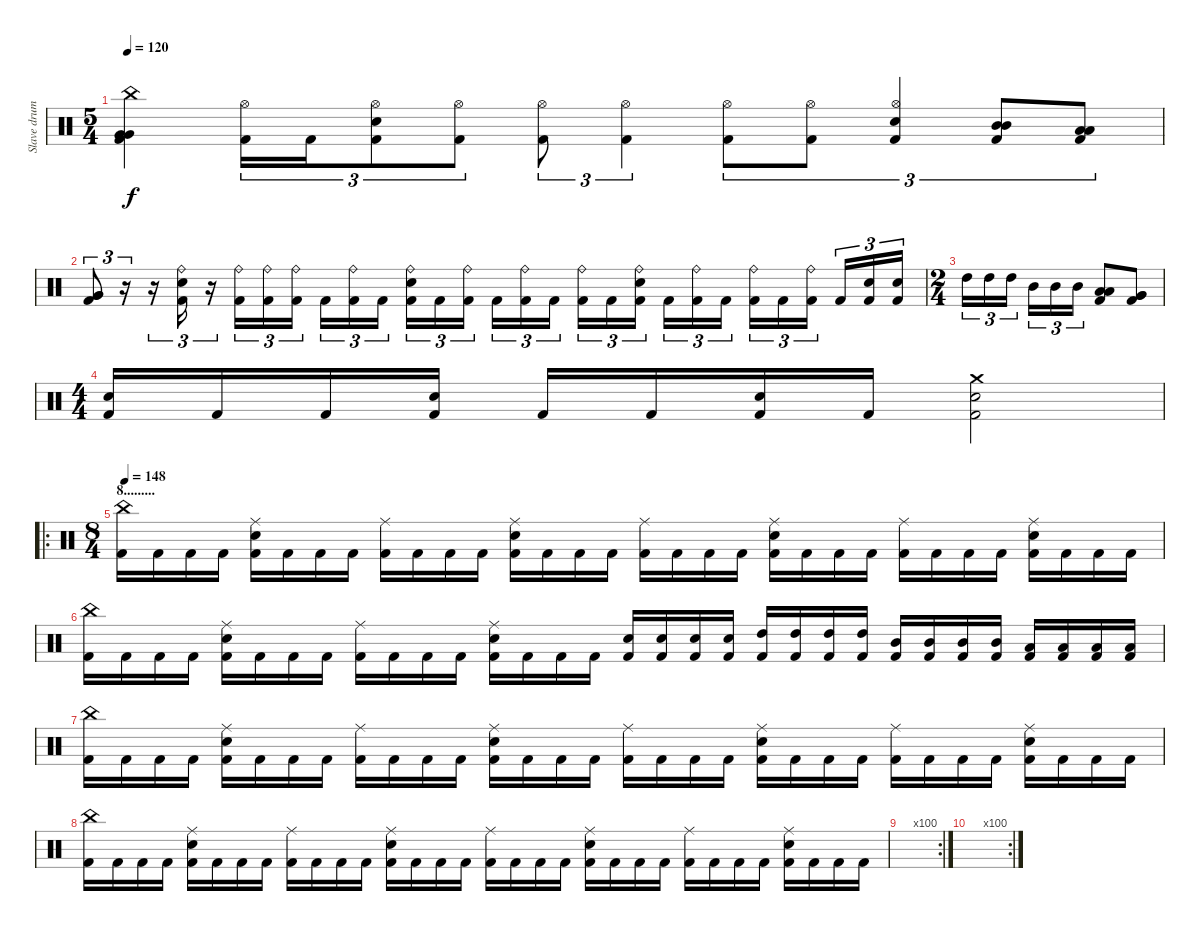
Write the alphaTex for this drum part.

\track ("Slave drum" "Slave drum") {instrument percussion}
\staff {score}
\articulation defaults
\ts (5 4)
\tempo 120
\clef neutral
\ks c
("China (hit)" "Very Low Tom (hit)" "Very Low Tom (hit)" "Kick (hit) 2").4{dy f} ("Hi-Hat (open)" "Kick (hit) 2").16{tu (3 2)} "Kick (hit) 2".16{tu (3 2)} ("Hi-Hat (open)" "Electric Snare (hit)" "Kick (hit) 2").8{tu (3 2)} ("Hi-Hat (open)" "Kick (hit) 2").8{tu (3 2)} ("Hi-Hat (open)" "Kick (hit) 2").8{tu (3 2)} ("Hi-Hat (open)" "Kick (hit) 2").4{tu (3 2)} ("Hi-Hat (open)" "Kick (hit) 2").8{tu (3 2)} ("Hi-Hat (open)" "Kick (hit) 2").8{tu (3 2)} ("Hi-Hat (open)" "Electric Snare (hit)" "Kick (hit) 2").4{tu (3 2)} ("Mid Tom (hit)" "Mid Tom (hit)" "Kick (hit) 2").8{tu (3 2)} ("Low Tom (hit)" "Low Tom (hit)" "Kick (hit) 2").8{tu (3 2)} |
("Very Low Tom (hit)" "Very Low Tom (hit)" "Kick (hit) 2").8{tu (3 2)} r.16{tu (3 2)} r.16{tu (3 2)} ("Ride (bell)" "Electric Snare (hit)" "Kick (hit) 2").16{tu (3 2)} r.16{tu (3 2)} ("Ride (bell)" "Kick (hit) 2").16{tu (3 2)} ("Ride (bell)" "Kick (hit) 2").16{tu (3 2)} ("Ride (bell)" "Kick (hit) 2").16{tu (3 2)} "Kick (hit) 2".16{tu (3 2)} ("Ride (bell)" "Kick (hit) 2").16{tu (3 2)} "Kick (hit) 2".16{tu (3 2)} ("Ride (bell)" "Electric Snare (hit)" "Kick (hit) 2").16{tu (3 2)} "Kick (hit) 2".16{tu (3 2)} ("Ride (bell)" "Kick (hit) 2").16{tu (3 2)} "Kick (hit) 2".16{tu (3 2)} ("Ride (bell)" "Kick (hit) 2").16{tu (3 2)} "Kick (hit) 2".16{tu (3 2)} ("Ride (bell)" "Kick (hit) 2").16{tu (3 2)} "Kick (hit) 2".16{tu (3 2)} ("Ride (bell)" "Electric Snare (hit)" "Kick (hit) 2").16{tu (3 2)} "Kick (hit) 2".16{tu (3 2)} ("Ride (bell)" "Kick (hit) 2").16{tu (3 2)} "Kick (hit) 2".16{tu (3 2)} ("Ride (bell)" "Kick (hit) 2").16{tu (3 2)} "Kick (hit) 2".16{tu (3 2)} ("Ride (bell)" "Kick (hit) 2").16{tu (3 2)} "Kick (hit) 2".16{tu (3 2)} ("Electric Snare (hit)" "Kick (hit) 2").16{tu (3 2)} ("Electric Snare (hit)" "Kick (hit) 2").16{tu (3 2)} |
\ts (2 4)
"High Tom (hit)".16{tu (3 2)} "High Tom (hit)".16{tu (3 2)} "High Tom (hit)".16{tu (3 2)} "Mid Tom (hit)".16{tu (3 2)} "Mid Tom (hit)".16{tu (3 2)} "Mid Tom (hit)".16{tu (3 2)} ("Low Tom (hit)" "Low Tom (hit)" "Kick (hit) 2").8 ("Very Low Tom (hit)" "Very Low Tom (hit)" "Kick (hit) 2").8 |
\ts (4 4)
("Electric Snare (hit)" "Kick (hit) 2").16 "Kick (hit) 2".16 "Kick (hit) 2".16 ("Electric Snare (hit)" "Kick (hit) 2").16 "Kick (hit) 2".16 "Kick (hit) 2".16 ("Electric Snare (hit)" "Kick (hit) 2").16 "Kick (hit) 2".16 ("Crash medium (hit)" "Electric Snare (hit)" "Kick (hit) 2").2 |
\ro
\ts (8 4)
\section ("" "8.........")
\tempo 148
("China (hit)" "Kick (hit) 2").16{volume 13} "Kick (hit) 2".16 "Kick (hit) 2".16 "Kick (hit) 2".16 ("Ride (middle)" "Electric Snare (hit)" "Kick (hit) 2").16 "Kick (hit) 2".16 "Kick (hit) 2".16 "Kick (hit) 2".16 ("Ride (middle)" "Kick (hit) 2").16 "Kick (hit) 2".16 "Kick (hit) 2".16 "Kick (hit) 2".16 ("Ride (middle)" "Electric Snare (hit)" "Kick (hit) 2").16 "Kick (hit) 2".16 "Kick (hit) 2".16 "Kick (hit) 2".16 ("Ride (middle)" "Kick (hit) 2").16 "Kick (hit) 2".16 "Kick (hit) 2".16 "Kick (hit) 2".16 ("Ride (middle)" "Electric Snare (hit)" "Kick (hit) 2").16 "Kick (hit) 2".16 "Kick (hit) 2".16 "Kick (hit) 2".16 ("Ride (middle)" "Kick (hit) 2").16{volume 0} "Kick (hit) 2".16 "Kick (hit) 2".16 "Kick (hit) 2".16 ("Ride (middle)" "Electric Snare (hit)" "Kick (hit) 2").16 "Kick (hit) 2".16 "Kick (hit) 2".16 "Kick (hit) 2".16 |
("China (hit)" "Kick (hit) 2").16 "Kick (hit) 2".16 "Kick (hit) 2".16 "Kick (hit) 2".16 ("Ride (middle)" "Electric Snare (hit)" "Kick (hit) 2").16 "Kick (hit) 2".16 "Kick (hit) 2".16 "Kick (hit) 2".16 ("Ride (middle)" "Kick (hit) 2").16 "Kick (hit) 2".16 "Kick (hit) 2".16 "Kick (hit) 2".16 ("Ride (middle)" "Electric Snare (hit)" "Kick (hit) 2").16 "Kick (hit) 2".16 "Kick (hit) 2".16 "Kick (hit) 2".16 ("Electric Snare (hit)" "Kick (hit) 2").16 ("Electric Snare (hit)" "Kick (hit) 2").16 ("Electric Snare (hit)" "Kick (hit) 2").16 ("Electric Snare (hit)" "Kick (hit) 2").16 ("High Tom (hit)" "Kick (hit) 2").16 ("High Tom (hit)" "Kick (hit) 2").16 ("High Tom (hit)" "Kick (hit) 2").16 ("High Tom (hit)" "Kick (hit) 2").16 ("Mid Tom (hit)" "Kick (hit) 2").16 ("Mid Tom (hit)" "Kick (hit) 2").16 ("Mid Tom (hit)" "Kick (hit) 2").16 ("Mid Tom (hit)" "Kick (hit) 2").16 ("Low Tom (hit)" "Kick (hit) 2").16 ("Low Tom (hit)" "Kick (hit) 2").16 ("Low Tom (hit)" "Kick (hit) 2").16 ("Low Tom (hit)" "Kick (hit) 2").16 |
("China (hit)" "Kick (hit) 2").16 "Kick (hit) 2".16 "Kick (hit) 2".16 "Kick (hit) 2".16 ("Ride (middle)" "Electric Snare (hit)" "Kick (hit) 2").16 "Kick (hit) 2".16 "Kick (hit) 2".16 "Kick (hit) 2".16 ("Ride (middle)" "Kick (hit) 2").16 "Kick (hit) 2".16 "Kick (hit) 2".16 "Kick (hit) 2".16 ("Ride (middle)" "Electric Snare (hit)" "Kick (hit) 2").16 "Kick (hit) 2".16 "Kick (hit) 2".16 "Kick (hit) 2".16 ("Ride (middle)" "Kick (hit) 2").16 "Kick (hit) 2".16 "Kick (hit) 2".16 "Kick (hit) 2".16 ("Ride (middle)" "Electric Snare (hit)" "Kick (hit) 2").16 "Kick (hit) 2".16 "Kick (hit) 2".16 "Kick (hit) 2".16 ("Ride (middle)" "Kick (hit) 2").16 "Kick (hit) 2".16 "Kick (hit) 2".16 "Kick (hit) 2".16 ("Ride (middle)" "Electric Snare (hit)" "Kick (hit) 2").16 "Kick (hit) 2".16 "Kick (hit) 2".16 "Kick (hit) 2".16 |
("China (hit)" "Kick (hit) 2").16 "Kick (hit) 2".16 "Kick (hit) 2".16 "Kick (hit) 2".16 ("Ride (middle)" "Electric Snare (hit)" "Kick (hit) 2").16 "Kick (hit) 2".16 "Kick (hit) 2".16 "Kick (hit) 2".16 ("Ride (middle)" "Kick (hit) 2").16 "Kick (hit) 2".16 "Kick (hit) 2".16 "Kick (hit) 2".16 ("Ride (middle)" "Electric Snare (hit)" "Kick (hit) 2").16 "Kick (hit) 2".16 "Kick (hit) 2".16 "Kick (hit) 2".16 ("Ride (middle)" "Kick (hit) 2").16 "Kick (hit) 2".16 "Kick (hit) 2".16 "Kick (hit) 2".16 ("Ride (middle)" "Electric Snare (hit)" "Kick (hit) 2").16 "Kick (hit) 2".16 "Kick (hit) 2".16 "Kick (hit) 2".16 ("Ride (middle)" "Kick (hit) 2").16 "Kick (hit) 2".16 "Kick (hit) 2".16 "Kick (hit) 2".16 ("Ride (middle)" "Electric Snare (hit)" "Kick (hit) 2").16 "Kick (hit) 2".16 "Kick (hit) 2".16 "Kick (hit) 2".16 |
\rc 100
|
\rc 100
